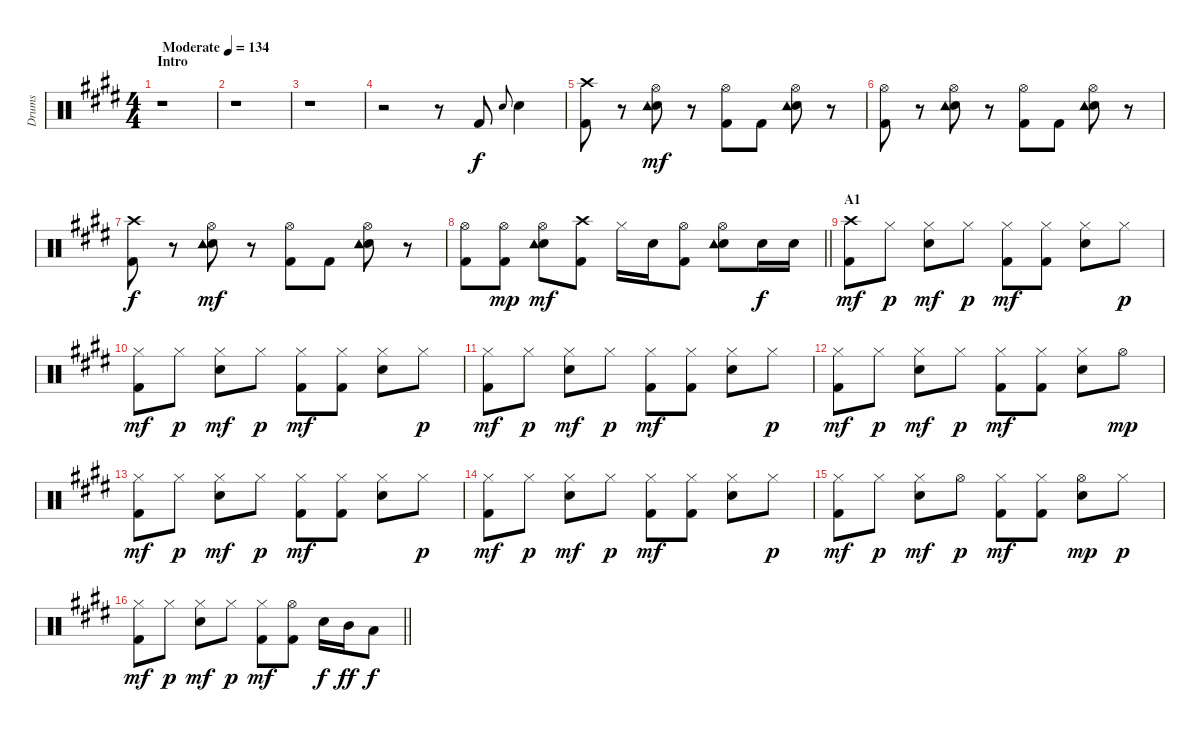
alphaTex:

\track ("Drums" "Drums") {instrument percussion}
\staff {score}
\articulation defaults
\ts (4 4)
\section ("" "Intro")
\tempo (134 "Moderate")
\clef neutral
\ks e
r.1{dy f} |
r.1 |
r.1 |
r.2 r.8 "Kick (hit) 2".8 "Electric Snare (hit)".8{gr onbeat} "Electric Snare (hit)".4 |
("Crash high (hit)" "Kick (hit) 2").8 r.8 ("Hi-Hat (open)" "Electric Snare (hit)" "Tambourine (hit)").8{dy mf} r.8 ("Hi-Hat (open)" "Kick (hit) 2").8 "Kick (hit) 2".8 ("Hi-Hat (open)" "Electric Snare (hit)" "Tambourine (hit)").8 r.8 |
("Hi-Hat (open)" "Kick (hit) 2").8 r.8 ("Hi-Hat (open)" "Electric Snare (hit)" "Tambourine (hit)").8 r.8 ("Hi-Hat (open)" "Kick (hit) 2").8 "Kick (hit) 2".8 ("Hi-Hat (open)" "Electric Snare (hit)" "Tambourine (hit)").8 r.8 |
("Crash high (hit)" "Kick (hit) 2").8{dy f} r.8 ("Hi-Hat (open)" "Electric Snare (hit)" "Tambourine (hit)").8{dy mf} r.8 ("Hi-Hat (open)" "Kick (hit) 2").8 "Kick (hit) 2".8 ("Hi-Hat (open)" "Electric Snare (hit)" "Tambourine (hit)").8 r.8 |
\barLineRight lightlight
("Hi-Hat (open)" "Kick (hit) 2").8 ("Hi-Hat (open)" "Kick (hit) 2").8{dy mp} ("Hi-Hat (open)" "Electric Snare (hit)" "Tambourine (hit)").8{dy mf} ("Crash high (hit)" "Kick (hit) 2").8 "Hi-Hat (closed)".16 "Electric Snare (hit)".16 ("Hi-Hat (open)" "Kick (hit) 2").8 ("Hi-Hat (open)" "Electric Snare (hit)" "Tambourine (hit)").8 "Electric Snare (hit)".16{dy f} "Electric Snare (hit)".16 |
\section ("" "A1")
("Crash high (hit)" "Kick (hit) 2").8{dy mf} "Hi-Hat (closed)".8{dy p} ("Hi-Hat (closed)" "Electric Snare (hit)").8{dy mf} "Hi-Hat (closed)".8{dy p} ("Hi-Hat (closed)" "Kick (hit) 2").8{dy mf} ("Hi-Hat (closed)" "Kick (hit) 2").8 ("Hi-Hat (closed)" "Electric Snare (hit)").8 "Hi-Hat (closed)".8{dy p} |
("Hi-Hat (closed)" "Kick (hit) 2").8{dy mf} "Hi-Hat (closed)".8{dy p} ("Hi-Hat (closed)" "Electric Snare (hit)").8{dy mf} "Hi-Hat (closed)".8{dy p} ("Hi-Hat (closed)" "Kick (hit) 2").8{dy mf} ("Hi-Hat (closed)" "Kick (hit) 2").8 ("Hi-Hat (closed)" "Electric Snare (hit)").8 "Hi-Hat (closed)".8{dy p} |
("Hi-Hat (closed)" "Kick (hit) 2").8{dy mf} "Hi-Hat (closed)".8{dy p} ("Hi-Hat (closed)" "Electric Snare (hit)").8{dy mf} "Hi-Hat (closed)".8{dy p} ("Hi-Hat (closed)" "Kick (hit) 2").8{dy mf} ("Hi-Hat (closed)" "Kick (hit) 2").8 ("Hi-Hat (closed)" "Electric Snare (hit)").8 "Hi-Hat (closed)".8{dy p} |
("Hi-Hat (closed)" "Kick (hit) 2").8{dy mf} "Hi-Hat (closed)".8{dy p} ("Hi-Hat (closed)" "Electric Snare (hit)").8{dy mf} "Hi-Hat (closed)".8{dy p} ("Hi-Hat (closed)" "Kick (hit) 2").8{dy mf} ("Hi-Hat (closed)" "Kick (hit) 2").8 ("Hi-Hat (closed)" "Electric Snare (hit)").8 "Hi-Hat (open)".8{dy mp} |
("Hi-Hat (closed)" "Kick (hit) 2").8{dy mf} "Hi-Hat (closed)".8{dy p} ("Hi-Hat (closed)" "Electric Snare (hit)").8{dy mf} "Hi-Hat (closed)".8{dy p} ("Hi-Hat (closed)" "Kick (hit) 2").8{dy mf} ("Hi-Hat (closed)" "Kick (hit) 2").8 ("Hi-Hat (closed)" "Electric Snare (hit)").8 "Hi-Hat (closed)".8{dy p} |
("Hi-Hat (closed)" "Kick (hit) 2").8{dy mf} "Hi-Hat (closed)".8{dy p} ("Hi-Hat (closed)" "Electric Snare (hit)").8{dy mf} "Hi-Hat (closed)".8{dy p} ("Hi-Hat (closed)" "Kick (hit) 2").8{dy mf} ("Hi-Hat (closed)" "Kick (hit) 2").8 ("Hi-Hat (closed)" "Electric Snare (hit)").8 "Hi-Hat (closed)".8{dy p} |
("Hi-Hat (closed)" "Kick (hit) 2").8{dy mf} "Hi-Hat (closed)".8{dy p} ("Hi-Hat (closed)" "Electric Snare (hit)").8{dy mf} "Hi-Hat (open)".8{dy p} ("Hi-Hat (closed)" "Kick (hit) 2").8{dy mf} ("Hi-Hat (closed)" "Kick (hit) 2").8 ("Hi-Hat (open)" "Electric Snare (hit)").8{dy mp} "Hi-Hat (closed)".8{dy p} |
\barLineRight lightlight
("Hi-Hat (closed)" "Kick (hit) 2").8{dy mf} "Hi-Hat (closed)".8{dy p} ("Hi-Hat (closed)" "Electric Snare (hit)").8{dy mf} "Hi-Hat (closed)".8{dy p} ("Hi-Hat (closed)" "Kick (hit) 2").8{dy mf} ("Hi-Hat (open)" "Kick (hit) 2").8 "Electric Snare (hit)".16{dy f} "Mid Tom (hit)".16{dy ff} "Low Tom (hit)".8{dy f}
